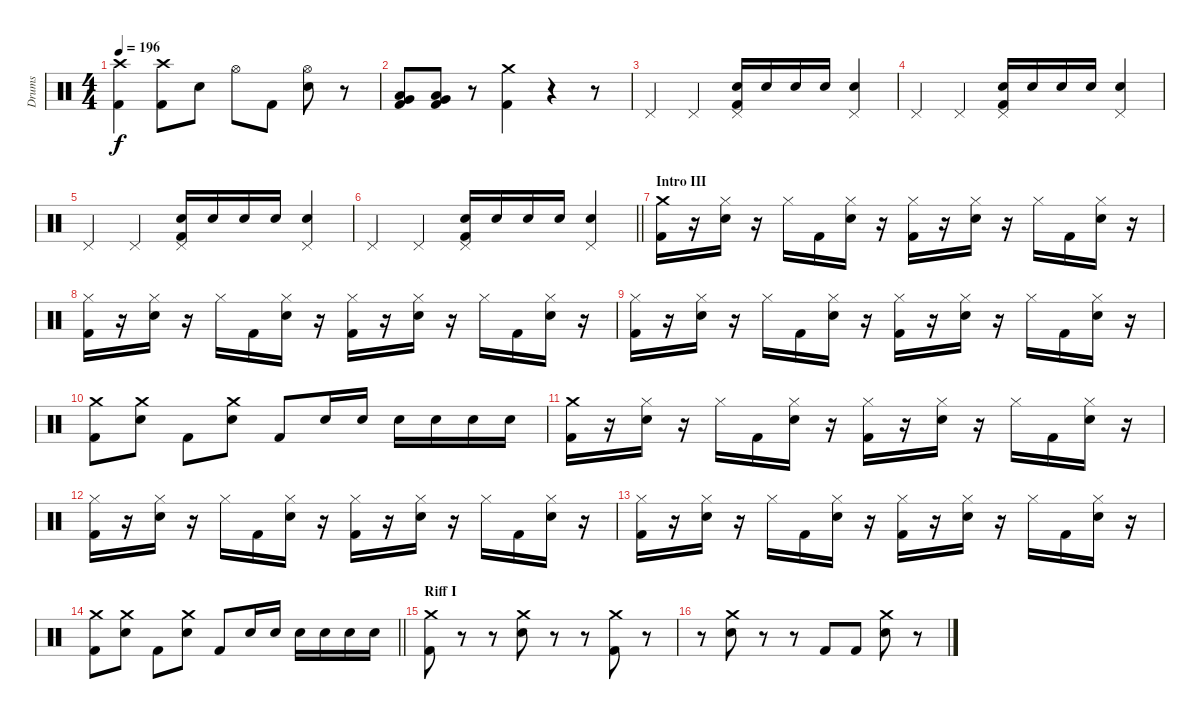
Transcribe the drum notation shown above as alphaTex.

\track ("Drums" "Drums") {instrument percussion}
\staff {score}
\articulation defaults
\ts (4 4)
\tempo 196
\clef neutral
\ks c
("Crash high (hit)" "Kick (hit) 2").4{dy f} ("Crash high (hit)" "Kick (hit) 2").8 "Electric Snare (hit)".8 "Hi-Hat (open)".8 "Kick (hit) 2".8 ("Hi-Hat (open)" "Electric Snare (hit)").8 r.8 |
("Low Tom (hit)" "Very Low Tom (hit)" "Kick (hit) 2").8 ("Low Tom (hit)" "Very Low Tom (hit)" "Kick (hit) 2").8 r.8 ("Crash medium (hit)" "Kick (hit) 2").4 r.4 r.8 |
"Pedal Hi-Hat (hit)".4 "Pedal Hi-Hat (hit)".4 ("Pedal Hi-Hat (hit)" "Electric Snare (hit)" "Kick (hit) 2").16 "Electric Snare (hit)".16 "Electric Snare (hit)".16 "Electric Snare (hit)".16 ("Pedal Hi-Hat (hit)" "Electric Snare (hit)").4 |
"Pedal Hi-Hat (hit)".4 "Pedal Hi-Hat (hit)".4 ("Pedal Hi-Hat (hit)" "Electric Snare (hit)" "Kick (hit) 2").16 "Electric Snare (hit)".16 "Electric Snare (hit)".16 "Electric Snare (hit)".16 ("Pedal Hi-Hat (hit)" "Electric Snare (hit)").4 |
"Pedal Hi-Hat (hit)".4 "Pedal Hi-Hat (hit)".4 ("Pedal Hi-Hat (hit)" "Electric Snare (hit)" "Kick (hit) 2").16 "Electric Snare (hit)".16 "Electric Snare (hit)".16 "Electric Snare (hit)".16 ("Pedal Hi-Hat (hit)" "Electric Snare (hit)").4 |
\barLineRight lightlight "Pedal Hi-Hat (hit)".4 "Pedal Hi-Hat (hit)".4
("Pedal Hi-Hat (hit)" "Electric Snare (hit)" "Kick (hit) 2").16 "Electric Snare (hit)".16 "Electric Snare (hit)".16 "Electric Snare (hit)".16 ("Pedal Hi-Hat (hit)" "Electric Snare (hit)").4 |
\section ("" "Intro III")
("Crash medium (hit)" "Kick (hit) 2").16 r.16 ("Hi-Hat (closed)" "Electric Snare (hit)").16 r.16 "Hi-Hat (closed)".16 "Kick (hit) 2".16 ("Hi-Hat (closed)" "Electric Snare (hit)").16 r.16 ("Hi-Hat (closed)" "Kick (hit) 2").16 r.16 ("Hi-Hat (closed)" "Electric Snare (hit)").16 r.16 "Hi-Hat (closed)".16 "Kick (hit) 2".16 ("Hi-Hat (closed)" "Electric Snare (hit)").16 r.16 |
("Hi-Hat (closed)" "Kick (hit) 2").16 r.16 ("Hi-Hat (closed)" "Electric Snare (hit)").16 r.16 "Hi-Hat (closed)".16 "Kick (hit) 2".16 ("Hi-Hat (closed)" "Electric Snare (hit)").16 r.16 ("Hi-Hat (closed)" "Kick (hit) 2").16 r.16 ("Hi-Hat (closed)" "Electric Snare (hit)").16 r.16 "Hi-Hat (closed)".16 "Kick (hit) 2".16 ("Hi-Hat (closed)" "Electric Snare (hit)").16 r.16 |
("Hi-Hat (closed)" "Kick (hit) 2").16 r.16 ("Hi-Hat (closed)" "Electric Snare (hit)").16 r.16 "Hi-Hat (closed)".16 "Kick (hit) 2".16 ("Hi-Hat (closed)" "Electric Snare (hit)").16 r.16 ("Hi-Hat (closed)" "Kick (hit) 2").16 r.16 ("Hi-Hat (closed)" "Electric Snare (hit)").16 r.16 "Hi-Hat (closed)".16 "Kick (hit) 2".16 ("Hi-Hat (closed)" "Electric Snare (hit)").16 r.16 |
("Crash medium (hit)" "Kick (hit) 2").8 ("Crash medium (hit)" "Electric Snare (hit)").8 "Kick (hit) 2".8 ("Crash medium (hit)" "Electric Snare (hit)").8 "Kick (hit) 2".8 "Electric Snare (hit)".16 "Electric Snare (hit)".16 "Electric Snare (hit)".16 "Electric Snare (hit)".16 "Electric Snare (hit)".16 "Electric Snare (hit)".16 |
("Crash medium (hit)" "Kick (hit) 2").16 r.16 ("Hi-Hat (closed)" "Electric Snare (hit)").16 r.16 "Hi-Hat (closed)".16 "Kick (hit) 2".16 ("Hi-Hat (closed)" "Electric Snare (hit)").16 r.16 ("Hi-Hat (closed)" "Kick (hit) 2").16 r.16 ("Hi-Hat (closed)" "Electric Snare (hit)").16 r.16 "Hi-Hat (closed)".16 "Kick (hit) 2".16 ("Hi-Hat (closed)" "Electric Snare (hit)").16 r.16 |
("Hi-Hat (closed)" "Kick (hit) 2").16 r.16 ("Hi-Hat (closed)" "Electric Snare (hit)").16 r.16 "Hi-Hat (closed)".16 "Kick (hit) 2".16 ("Hi-Hat (closed)" "Electric Snare (hit)").16 r.16 ("Hi-Hat (closed)" "Kick (hit) 2").16 r.16 ("Hi-Hat (closed)" "Electric Snare (hit)").16 r.16 "Hi-Hat (closed)".16 "Kick (hit) 2".16 ("Hi-Hat (closed)" "Electric Snare (hit)").16 r.16 |
("Hi-Hat (closed)" "Kick (hit) 2").16 r.16 ("Hi-Hat (closed)" "Electric Snare (hit)").16 r.16 "Hi-Hat (closed)".16 "Kick (hit) 2".16 ("Hi-Hat (closed)" "Electric Snare (hit)").16 r.16 ("Hi-Hat (closed)" "Kick (hit) 2").16 r.16 ("Hi-Hat (closed)" "Electric Snare (hit)").16 r.16 "Hi-Hat (closed)".16 "Kick (hit) 2".16 ("Hi-Hat (closed)" "Electric Snare (hit)").16 r.16 |
\barLineRight lightlight
("Crash medium (hit)" "Kick (hit) 2").8 ("Crash medium (hit)" "Electric Snare (hit)").8 "Kick (hit) 2".8 ("Crash medium (hit)" "Electric Snare (hit)").8 "Kick (hit) 2".8 "Electric Snare (hit)".16 "Electric Snare (hit)".16 "Electric Snare (hit)".16 "Electric Snare (hit)".16 "Electric Snare (hit)".16 "Electric Snare (hit)".16 |
\section ("" "Riff I")
("Crash medium (hit)" "Kick (hit) 2").8 r.8 r.8 ("Crash medium (hit)" "Electric Snare (hit)").8 r.8 r.8 ("Crash medium (hit)" "Kick (hit) 2").8 r.8 |
r.8 ("Crash medium (hit)" "Electric Snare (hit)").8 r.8 r.8 "Kick (hit) 2".8 "Kick (hit) 2".8 ("Crash medium (hit)" "Electric Snare (hit)").8 r.8
